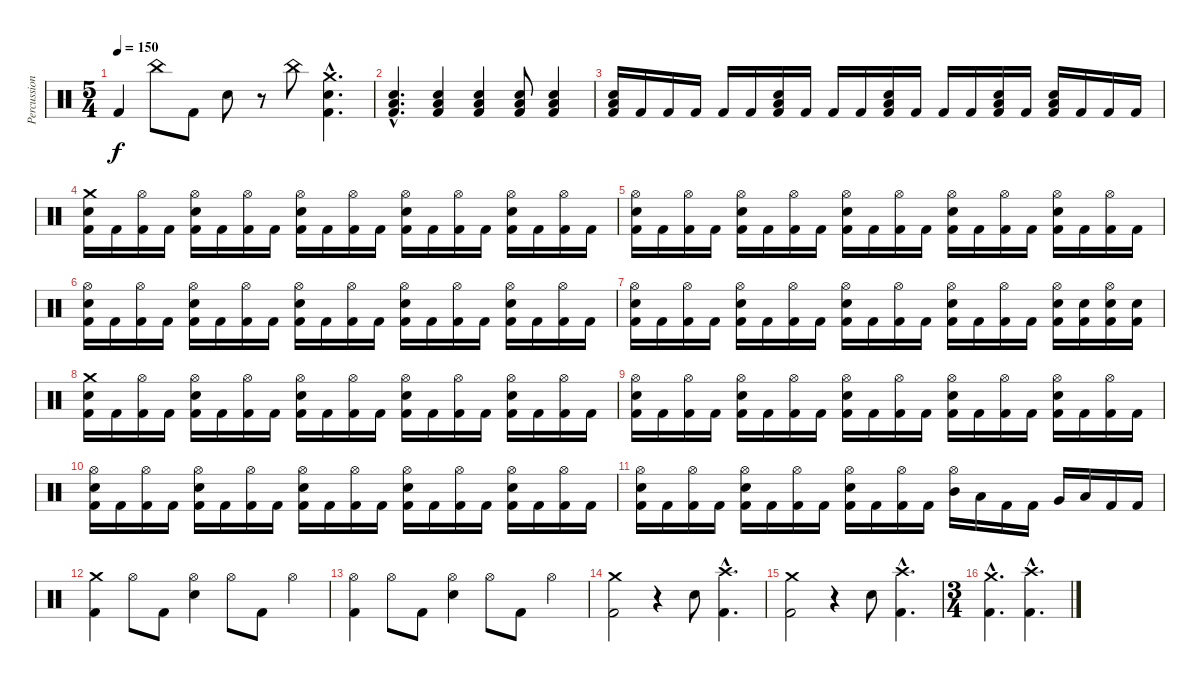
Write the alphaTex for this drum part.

\track ("Percussion" "Percussion") {instrument percussion}
\staff {score}
\articulation defaults
\ts (5 4)
\tempo 150
\clef neutral
\ks aminor "Kick (hit) 2".4{dy f} "China (hit)".8 "Kick (hit) 2".8 "Electric Snare (hit)".8
r.8 "China (hit)".8 ("Crash medium (hit)"{hac} "Electric Snare (hit)"{hac} "Kick (hit) 2"{hac}).4{d} |
("Low Floor Tom (hit)"{hac} "Electric Snare (hit)"{hac} "Kick (hit) 2"{hac}).4{d} ("Low Floor Tom (hit)" "Electric Snare (hit)" "Kick (hit) 2").4 ("Low Floor Tom (hit)" "Electric Snare (hit)" "Kick (hit) 2").4 ("Low Floor Tom (hit)" "Electric Snare (hit)" "Kick (hit) 2").8 ("Low Floor Tom (hit)" "Electric Snare (hit)" "Kick (hit) 2").4 |
("Low Floor Tom (hit)" "Electric Snare (hit)" "Kick (hit) 2").16 "Kick (hit) 2".16 "Kick (hit) 2".16 "Kick (hit) 2".16 "Kick (hit) 2".16 "Kick (hit) 2".16 ("Low Floor Tom (hit)" "Electric Snare (hit)" "Kick (hit) 2").16 "Kick (hit) 2".16 "Kick (hit) 2".16 "Kick (hit) 2".16 ("Low Floor Tom (hit)" "Electric Snare (hit)" "Kick (hit) 2").16 "Kick (hit) 2".16 "Kick (hit) 2".16 "Kick (hit) 2".16 ("Low Floor Tom (hit)" "Electric Snare (hit)" "Kick (hit) 2").16 "Kick (hit) 2".16 ("Low Floor Tom (hit)" "Electric Snare (hit)" "Kick (hit) 2").16 "Kick (hit) 2".16 "Kick (hit) 2".16 "Kick (hit) 2".16 |
("Crash medium (hit)" "Electric Snare (hit)" "Kick (hit) 2").16 "Kick (hit) 2".16 ("Hi-Hat (open)" "Kick (hit) 2").16 "Kick (hit) 2".16 ("Hi-Hat (open)" "Electric Snare (hit)" "Kick (hit) 2").16 "Kick (hit) 2".16 ("Hi-Hat (open)" "Kick (hit) 2").16 "Kick (hit) 2".16 ("Hi-Hat (open)" "Electric Snare (hit)" "Kick (hit) 2").16 "Kick (hit) 2".16 ("Hi-Hat (open)" "Kick (hit) 2").16 "Kick (hit) 2".16 ("Hi-Hat (open)" "Electric Snare (hit)" "Kick (hit) 2").16 "Kick (hit) 2".16 ("Hi-Hat (open)" "Kick (hit) 2").16 "Kick (hit) 2".16 ("Hi-Hat (open)" "Electric Snare (hit)" "Kick (hit) 2").16 "Kick (hit) 2".16 ("Hi-Hat (open)" "Kick (hit) 2").16 "Kick (hit) 2".16 |
("Hi-Hat (open)" "Electric Snare (hit)" "Kick (hit) 2").16 "Kick (hit) 2".16 ("Hi-Hat (open)" "Kick (hit) 2").16 "Kick (hit) 2".16 ("Hi-Hat (open)" "Electric Snare (hit)" "Kick (hit) 2").16 "Kick (hit) 2".16 ("Hi-Hat (open)" "Kick (hit) 2").16 "Kick (hit) 2".16 ("Hi-Hat (open)" "Electric Snare (hit)" "Kick (hit) 2").16 "Kick (hit) 2".16 ("Hi-Hat (open)" "Kick (hit) 2").16 "Kick (hit) 2".16 ("Hi-Hat (open)" "Electric Snare (hit)" "Kick (hit) 2").16 "Kick (hit) 2".16 ("Hi-Hat (open)" "Kick (hit) 2").16 "Kick (hit) 2".16 ("Hi-Hat (open)" "Electric Snare (hit)" "Kick (hit) 2").16 "Kick (hit) 2".16 ("Hi-Hat (open)" "Kick (hit) 2").16 "Kick (hit) 2".16 |
("Hi-Hat (open)" "Electric Snare (hit)" "Kick (hit) 2").16 "Kick (hit) 2".16 ("Hi-Hat (open)" "Kick (hit) 2").16 "Kick (hit) 2".16 ("Hi-Hat (open)" "Electric Snare (hit)" "Kick (hit) 2").16 "Kick (hit) 2".16 ("Hi-Hat (open)" "Kick (hit) 2").16 "Kick (hit) 2".16 ("Hi-Hat (open)" "Electric Snare (hit)" "Kick (hit) 2").16 "Kick (hit) 2".16 ("Hi-Hat (open)" "Kick (hit) 2").16 "Kick (hit) 2".16 ("Hi-Hat (open)" "Electric Snare (hit)" "Kick (hit) 2").16 "Kick (hit) 2".16 ("Hi-Hat (open)" "Kick (hit) 2").16 "Kick (hit) 2".16 ("Hi-Hat (open)" "Electric Snare (hit)" "Kick (hit) 2").16 "Kick (hit) 2".16 ("Hi-Hat (open)" "Kick (hit) 2").16 "Kick (hit) 2".16 |
("Hi-Hat (open)" "Electric Snare (hit)" "Kick (hit) 2").16 "Kick (hit) 2".16 ("Hi-Hat (open)" "Kick (hit) 2").16 "Kick (hit) 2".16 ("Hi-Hat (open)" "Electric Snare (hit)" "Kick (hit) 2").16 "Kick (hit) 2".16 ("Hi-Hat (open)" "Kick (hit) 2").16 "Kick (hit) 2".16 ("Hi-Hat (open)" "Electric Snare (hit)" "Kick (hit) 2").16 "Kick (hit) 2".16 ("Hi-Hat (open)" "Kick (hit) 2").16 "Kick (hit) 2".16 ("Hi-Hat (open)" "Electric Snare (hit)" "Kick (hit) 2").16 "Kick (hit) 2".16 ("Hi-Hat (open)" "Kick (hit) 2").16 "Kick (hit) 2".16 ("Hi-Hat (open)" "Electric Snare (hit)" "Kick (hit) 2").16 ("Electric Snare (hit)" "Kick (hit) 2").16 ("Hi-Hat (open)" "Electric Snare (hit)" "Kick (hit) 2").16 ("Electric Snare (hit)" "Kick (hit) 2").16 |
("Crash medium (hit)" "Electric Snare (hit)" "Kick (hit) 2").16 "Kick (hit) 2".16 ("Hi-Hat (open)" "Kick (hit) 2").16 "Kick (hit) 2".16 ("Hi-Hat (open)" "Electric Snare (hit)" "Kick (hit) 2").16 "Kick (hit) 2".16 ("Hi-Hat (open)" "Kick (hit) 2").16 "Kick (hit) 2".16 ("Hi-Hat (open)" "Electric Snare (hit)" "Kick (hit) 2").16 "Kick (hit) 2".16 ("Hi-Hat (open)" "Kick (hit) 2").16 "Kick (hit) 2".16 ("Hi-Hat (open)" "Electric Snare (hit)" "Kick (hit) 2").16 "Kick (hit) 2".16 ("Hi-Hat (open)" "Kick (hit) 2").16 "Kick (hit) 2".16 ("Hi-Hat (open)" "Electric Snare (hit)" "Kick (hit) 2").16 "Kick (hit) 2".16 ("Hi-Hat (open)" "Kick (hit) 2").16 "Kick (hit) 2".16 |
("Hi-Hat (open)" "Electric Snare (hit)" "Kick (hit) 2").16 "Kick (hit) 2".16 ("Hi-Hat (open)" "Kick (hit) 2").16 "Kick (hit) 2".16 ("Hi-Hat (open)" "Electric Snare (hit)" "Kick (hit) 2").16 "Kick (hit) 2".16 ("Hi-Hat (open)" "Kick (hit) 2").16 "Kick (hit) 2".16 ("Hi-Hat (open)" "Electric Snare (hit)" "Kick (hit) 2").16 "Kick (hit) 2".16 ("Hi-Hat (open)" "Kick (hit) 2").16 "Kick (hit) 2".16 ("Hi-Hat (open)" "Electric Snare (hit)" "Kick (hit) 2").16 "Kick (hit) 2".16 ("Hi-Hat (open)" "Kick (hit) 2").16 "Kick (hit) 2".16 ("Hi-Hat (open)" "Electric Snare (hit)" "Kick (hit) 2").16 "Kick (hit) 2".16 ("Hi-Hat (open)" "Kick (hit) 2").16 "Kick (hit) 2".16 |
("Hi-Hat (open)" "Electric Snare (hit)" "Kick (hit) 2").16 "Kick (hit) 2".16 ("Hi-Hat (open)" "Kick (hit) 2").16 "Kick (hit) 2".16 ("Hi-Hat (open)" "Electric Snare (hit)" "Kick (hit) 2").16 "Kick (hit) 2".16 ("Hi-Hat (open)" "Kick (hit) 2").16 "Kick (hit) 2".16 ("Hi-Hat (open)" "Electric Snare (hit)" "Kick (hit) 2").16 "Kick (hit) 2".16 ("Hi-Hat (open)" "Kick (hit) 2").16 "Kick (hit) 2".16 ("Hi-Hat (open)" "Electric Snare (hit)" "Kick (hit) 2").16 "Kick (hit) 2".16 ("Hi-Hat (open)" "Kick (hit) 2").16 "Kick (hit) 2".16 ("Hi-Hat (open)" "Electric Snare (hit)" "Kick (hit) 2").16 "Kick (hit) 2".16 ("Hi-Hat (open)" "Kick (hit) 2").16 "Kick (hit) 2".16 |
("Hi-Hat (open)" "Electric Snare (hit)" "Kick (hit) 2").16 "Kick (hit) 2".16 ("Hi-Hat (open)" "Kick (hit) 2").16 "Kick (hit) 2".16 ("Hi-Hat (open)" "Electric Snare (hit)" "Kick (hit) 2").16 "Kick (hit) 2".16 ("Hi-Hat (open)" "Kick (hit) 2").16 "Kick (hit) 2".16 ("Hi-Hat (open)" "Electric Snare (hit)" "Kick (hit) 2").16 "Kick (hit) 2".16 ("Hi-Hat (open)" "Kick (hit) 2").16 "Kick (hit) 2".16 ("Hi-Hat (open)" "Mid Tom (hit)").16 "Low Tom (hit)".16 "Kick (hit) 2".16 "Kick (hit) 2".16 "Very Low Tom (hit)".16 "Low Floor Tom (hit)".16 "Kick (hit) 2".16 "Kick (hit) 2".16 |
("Crash medium (hit)" "Kick (hit) 2").4 "Hi-Hat (open)".8 "Kick (hit) 2".8 ("Hi-Hat (open)" "Electric Snare (hit)").4 "Hi-Hat (open)".8 "Kick (hit) 2".8 "Hi-Hat (open)".4 |
("Hi-Hat (open)" "Kick (hit) 2").4 "Hi-Hat (open)".8 "Kick (hit) 2".8 ("Hi-Hat (open)" "Electric Snare (hit)").4 "Hi-Hat (open)".8 "Kick (hit) 2".8 "Hi-Hat (open)".4 |
("Crash medium (hit)" "Kick (hit) 2").2 r.4 "Electric Snare (hit)".8 ("Crash high (hit)"{hac} "Kick (hit) 2"{hac}).4{d} |
("Crash medium (hit)" "Kick (hit) 2").2 r.4 "Electric Snare (hit)".8 ("Crash high (hit)"{hac} "Kick (hit) 2"{hac}).4{d} |
\ts (3 4)
("Crash medium (hit)"{hac} "Kick (hit) 2"{hac}).4{d} ("Crash high (hit)"{hac} "Kick (hit) 2"{hac}).4{d}
